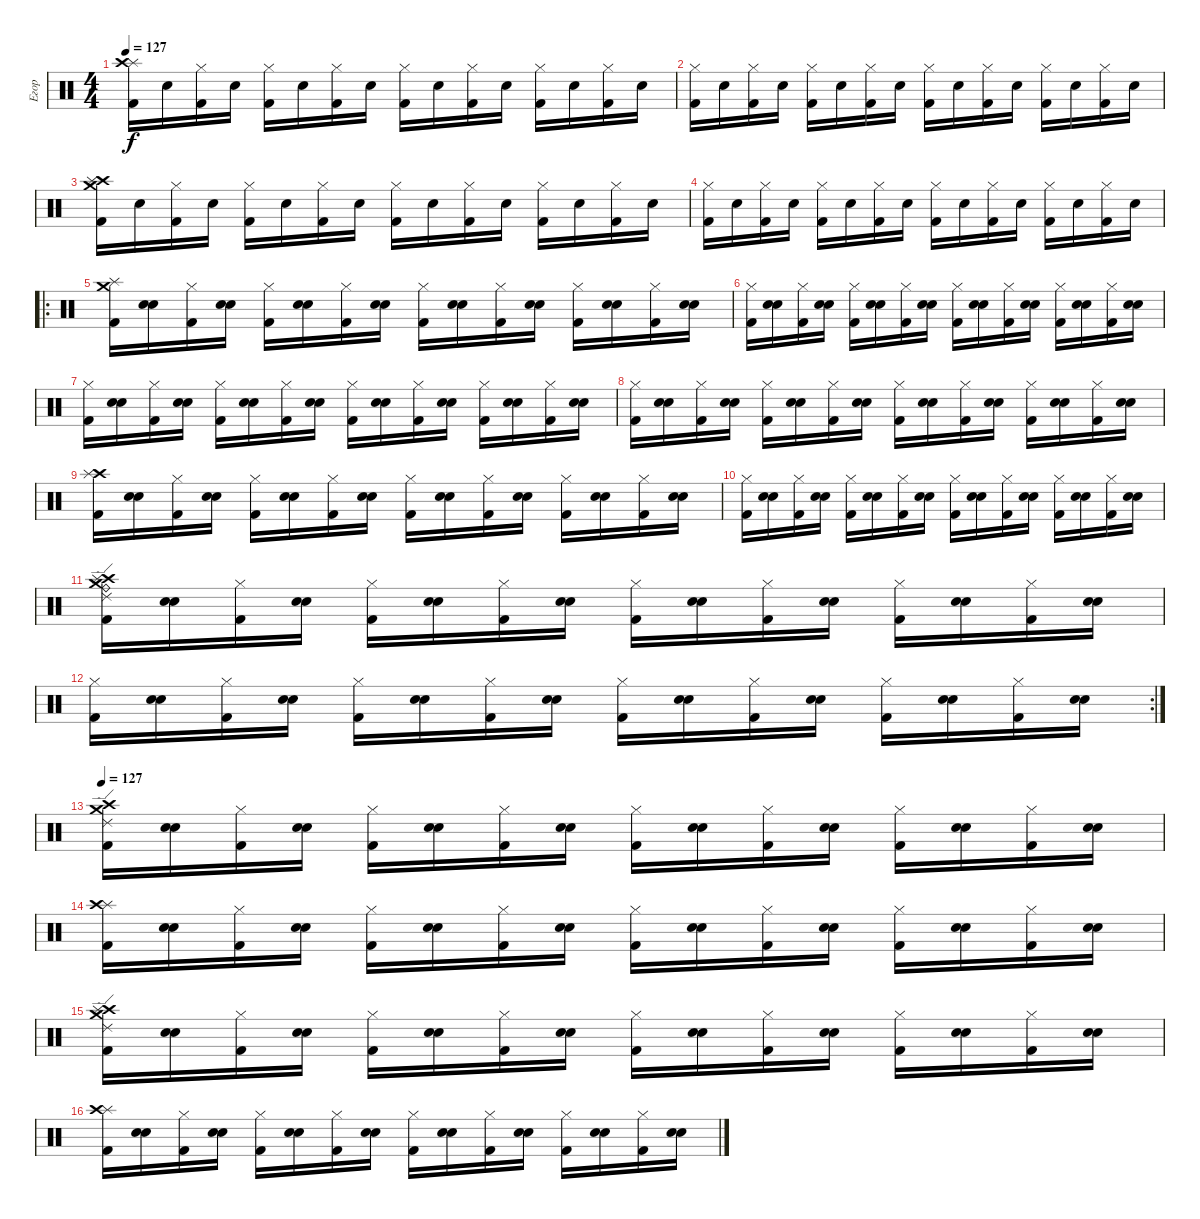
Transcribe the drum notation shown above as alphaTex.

\track ("Егор" "Егор") {instrument percussion}
\staff {score}
\articulation defaults
\ts (4 4)
\tempo 127
\clef neutral
\ks c
("Splash (hit)" "Crash high (hit)" "Kick (hit) 2").16{dy f} "Electric Snare (hit)".16 ("Hi-Hat (closed)" "Kick (hit) 2").16 "Electric Snare (hit)".16 ("Hi-Hat (closed)" "Kick (hit) 2").16 "Electric Snare (hit)".16 ("Hi-Hat (closed)" "Kick (hit) 2").16 "Electric Snare (hit)".16 ("Hi-Hat (closed)" "Kick (hit) 2").16 "Electric Snare (hit)".16 ("Hi-Hat (closed)" "Kick (hit) 2").16 "Electric Snare (hit)".16 ("Hi-Hat (closed)" "Kick (hit) 2").16 "Electric Snare (hit)".16 ("Hi-Hat (closed)" "Kick (hit) 2").16 "Electric Snare (hit)".16 |
("Hi-Hat (closed)" "Kick (hit) 2").16 "Electric Snare (hit)".16 ("Hi-Hat (closed)" "Kick (hit) 2").16 "Electric Snare (hit)".16 ("Hi-Hat (closed)" "Kick (hit) 2").16 "Electric Snare (hit)".16 ("Hi-Hat (closed)" "Kick (hit) 2").16 "Electric Snare (hit)".16 ("Hi-Hat (closed)" "Kick (hit) 2").16 "Electric Snare (hit)".16 ("Hi-Hat (closed)" "Kick (hit) 2").16 "Electric Snare (hit)".16 ("Hi-Hat (closed)" "Kick (hit) 2").16 "Electric Snare (hit)".16 ("Hi-Hat (closed)" "Kick (hit) 2").16 "Electric Snare (hit)".16 |
("Crash high (hit)" "Crash medium (hit)" "Splash (hit)" "Kick (hit) 2").16 "Electric Snare (hit)".16 ("Hi-Hat (closed)" "Kick (hit) 2").16 "Electric Snare (hit)".16 ("Hi-Hat (closed)" "Kick (hit) 2").16 "Electric Snare (hit)".16 ("Hi-Hat (closed)" "Kick (hit) 2").16 "Electric Snare (hit)".16 ("Hi-Hat (closed)" "Kick (hit) 2").16 "Electric Snare (hit)".16 ("Hi-Hat (closed)" "Kick (hit) 2").16 "Electric Snare (hit)".16 ("Hi-Hat (closed)" "Kick (hit) 2").16 "Electric Snare (hit)".16 ("Hi-Hat (closed)" "Kick (hit) 2").16 "Electric Snare (hit)".16 |
("Hi-Hat (closed)" "Kick (hit) 2").16 "Electric Snare (hit)".16 ("Hi-Hat (closed)" "Kick (hit) 2").16 "Electric Snare (hit)".16 ("Hi-Hat (closed)" "Kick (hit) 2").16 "Electric Snare (hit)".16 ("Hi-Hat (closed)" "Kick (hit) 2").16 "Electric Snare (hit)".16 ("Hi-Hat (closed)" "Kick (hit) 2").16 "Electric Snare (hit)".16 ("Hi-Hat (closed)" "Kick (hit) 2").16 "Electric Snare (hit)".16 ("Hi-Hat (closed)" "Kick (hit) 2").16 "Electric Snare (hit)".16 ("Hi-Hat (closed)" "Kick (hit) 2").16 "Electric Snare (hit)".16 |
\ro
("Crash medium (hit)" "Splash (hit)" "Kick (hit) 2").16 ("Snare (hit) 2" "Electric Snare (hit)").16 ("Hi-Hat (closed)" "Kick (hit) 2").16 ("Snare (hit) 2" "Electric Snare (hit)").16 ("Hi-Hat (closed)" "Kick (hit) 2").16 ("Snare (hit) 2" "Electric Snare (hit)").16 ("Hi-Hat (closed)" "Kick (hit) 2").16 ("Snare (hit) 2" "Electric Snare (hit)").16 ("Hi-Hat (closed)" "Kick (hit) 2").16 ("Snare (hit) 2" "Electric Snare (hit)").16 ("Hi-Hat (closed)" "Kick (hit) 2").16 ("Snare (hit) 2" "Electric Snare (hit)").16 ("Hi-Hat (closed)" "Kick (hit) 2").16 ("Snare (hit) 2" "Electric Snare (hit)").16 ("Hi-Hat (closed)" "Kick (hit) 2").16 ("Snare (hit) 2" "Electric Snare (hit)").16 |
("Hi-Hat (closed)" "Kick (hit) 2").16 ("Snare (hit) 2" "Electric Snare (hit)").16 ("Hi-Hat (closed)" "Kick (hit) 2").16 ("Snare (hit) 2" "Electric Snare (hit)").16 ("Hi-Hat (closed)" "Kick (hit) 2").16 ("Snare (hit) 2" "Electric Snare (hit)").16 ("Hi-Hat (closed)" "Kick (hit) 2").16 ("Snare (hit) 2" "Electric Snare (hit)").16 ("Hi-Hat (closed)" "Kick (hit) 2").16 ("Snare (hit) 2" "Electric Snare (hit)").16 ("Hi-Hat (closed)" "Kick (hit) 2").16 ("Snare (hit) 2" "Electric Snare (hit)").16 ("Hi-Hat (closed)" "Kick (hit) 2").16 ("Snare (hit) 2" "Electric Snare (hit)").16 ("Hi-Hat (closed)" "Kick (hit) 2").16 ("Snare (hit) 2" "Electric Snare (hit)").16 |
("Hi-Hat (closed)" "Kick (hit) 2").16 ("Snare (hit) 2" "Electric Snare (hit)").16 ("Hi-Hat (closed)" "Kick (hit) 2").16 ("Snare (hit) 2" "Electric Snare (hit)").16 ("Hi-Hat (closed)" "Kick (hit) 2").16 ("Snare (hit) 2" "Electric Snare (hit)").16 ("Hi-Hat (closed)" "Kick (hit) 2").16 ("Snare (hit) 2" "Electric Snare (hit)").16 ("Hi-Hat (closed)" "Kick (hit) 2").16 ("Snare (hit) 2" "Electric Snare (hit)").16 ("Hi-Hat (closed)" "Kick (hit) 2").16 ("Snare (hit) 2" "Electric Snare (hit)").16 ("Hi-Hat (closed)" "Kick (hit) 2").16 ("Snare (hit) 2" "Electric Snare (hit)").16 ("Hi-Hat (closed)" "Kick (hit) 2").16 ("Snare (hit) 2" "Electric Snare (hit)").16 |
("Hi-Hat (closed)" "Kick (hit) 2").16 ("Snare (hit) 2" "Electric Snare (hit)").16 ("Hi-Hat (closed)" "Kick (hit) 2").16 ("Snare (hit) 2" "Electric Snare (hit)").16 ("Hi-Hat (closed)" "Kick (hit) 2").16 ("Snare (hit) 2" "Electric Snare (hit)").16 ("Hi-Hat (closed)" "Kick (hit) 2").16 ("Snare (hit) 2" "Electric Snare (hit)").16 ("Hi-Hat (closed)" "Kick (hit) 2").16 ("Snare (hit) 2" "Electric Snare (hit)").16 ("Hi-Hat (closed)" "Kick (hit) 2").16 ("Snare (hit) 2" "Electric Snare (hit)").16 ("Hi-Hat (closed)" "Kick (hit) 2").16 ("Snare (hit) 2" "Electric Snare (hit)").16 ("Hi-Hat (closed)" "Kick (hit) 2").16 ("Snare (hit) 2" "Electric Snare (hit)").16 |
("Crash high (hit)" "Splash (hit)" "Kick (hit) 2").16 ("Snare (hit) 2" "Electric Snare (hit)").16 ("Hi-Hat (closed)" "Kick (hit) 2").16 ("Snare (hit) 2" "Electric Snare (hit)").16 ("Hi-Hat (closed)" "Kick (hit) 2").16 ("Snare (hit) 2" "Electric Snare (hit)").16 ("Hi-Hat (closed)" "Kick (hit) 2").16 ("Snare (hit) 2" "Electric Snare (hit)").16 ("Hi-Hat (closed)" "Kick (hit) 2").16 ("Snare (hit) 2" "Electric Snare (hit)").16 ("Hi-Hat (closed)" "Kick (hit) 2").16 ("Snare (hit) 2" "Electric Snare (hit)").16 ("Hi-Hat (closed)" "Kick (hit) 2").16 ("Snare (hit) 2" "Electric Snare (hit)").16 ("Hi-Hat (closed)" "Kick (hit) 2").16 ("Snare (hit) 2" "Electric Snare (hit)").16 |
("Hi-Hat (closed)" "Kick (hit) 2").16 ("Snare (hit) 2" "Electric Snare (hit)").16 ("Hi-Hat (closed)" "Kick (hit) 2").16 ("Snare (hit) 2" "Electric Snare (hit)").16 ("Hi-Hat (closed)" "Kick (hit) 2").16 ("Snare (hit) 2" "Electric Snare (hit)").16 ("Hi-Hat (closed)" "Kick (hit) 2").16 ("Snare (hit) 2" "Electric Snare (hit)").16 ("Hi-Hat (closed)" "Kick (hit) 2").16 ("Snare (hit) 2" "Electric Snare (hit)").16 ("Hi-Hat (closed)" "Kick (hit) 2").16 ("Snare (hit) 2" "Electric Snare (hit)").16 ("Hi-Hat (closed)" "Kick (hit) 2").16 ("Snare (hit) 2" "Electric Snare (hit)").16 ("Hi-Hat (closed)" "Kick (hit) 2").16 ("Snare (hit) 2" "Electric Snare (hit)").16 |
("Ride (bell)" "Crash medium (hit)" "Crash high (hit)" "Splash (hit)" "Ride (edge) 2" "Kick (hit) 2").16 ("Snare (hit) 2" "Electric Snare (hit)").16 ("Hi-Hat (closed)" "Kick (hit) 2").16 ("Snare (hit) 2" "Electric Snare (hit)").16 ("Hi-Hat (closed)" "Kick (hit) 2").16 ("Snare (hit) 2" "Electric Snare (hit)").16 ("Hi-Hat (closed)" "Kick (hit) 2").16 ("Snare (hit) 2" "Electric Snare (hit)").16 ("Hi-Hat (closed)" "Kick (hit) 2").16 ("Snare (hit) 2" "Electric Snare (hit)").16 ("Hi-Hat (closed)" "Kick (hit) 2").16 ("Snare (hit) 2" "Electric Snare (hit)").16 ("Hi-Hat (closed)" "Kick (hit) 2").16 ("Snare (hit) 2" "Electric Snare (hit)").16 ("Hi-Hat (closed)" "Kick (hit) 2").16 ("Snare (hit) 2" "Electric Snare (hit)").16 |
\rc 2
("Hi-Hat (closed)" "Kick (hit) 2").16 ("Snare (hit) 2" "Electric Snare (hit)").16 ("Hi-Hat (closed)" "Kick (hit) 2").16 ("Snare (hit) 2" "Electric Snare (hit)").16 ("Hi-Hat (closed)" "Kick (hit) 2").16 ("Snare (hit) 2" "Electric Snare (hit)").16 ("Hi-Hat (closed)" "Kick (hit) 2").16 ("Snare (hit) 2" "Electric Snare (hit)").16 ("Hi-Hat (closed)" "Kick (hit) 2").16 ("Snare (hit) 2" "Electric Snare (hit)").16 ("Hi-Hat (closed)" "Kick (hit) 2").16 ("Snare (hit) 2" "Electric Snare (hit)").16 ("Hi-Hat (closed)" "Kick (hit) 2").16 ("Snare (hit) 2" "Electric Snare (hit)").16 ("Hi-Hat (closed)" "Kick (hit) 2").16 ("Snare (hit) 2" "Electric Snare (hit)").16 |
\tempo 127
("Ride (edge) 2" "Crash medium (hit)" "Crash high (hit)" "Kick (hit) 2").16 ("Snare (hit) 2" "Electric Snare (hit)").16 ("Hi-Hat (closed)" "Kick (hit) 2").16 ("Snare (hit) 2" "Electric Snare (hit)").16 ("Hi-Hat (closed)" "Kick (hit) 2").16 ("Snare (hit) 2" "Electric Snare (hit)").16 ("Hi-Hat (closed)" "Kick (hit) 2").16 ("Snare (hit) 2" "Electric Snare (hit)").16 ("Hi-Hat (closed)" "Kick (hit) 2").16 ("Snare (hit) 2" "Electric Snare (hit)").16 ("Hi-Hat (closed)" "Kick (hit) 2").16 ("Snare (hit) 2" "Electric Snare (hit)").16 ("Hi-Hat (closed)" "Kick (hit) 2").16 ("Snare (hit) 2" "Electric Snare (hit)").16 ("Hi-Hat (closed)" "Kick (hit) 2").16 ("Snare (hit) 2" "Electric Snare (hit)").16 |
("Splash (hit)" "Crash high (hit)" "Kick (hit) 2").16 ("Snare (hit) 2" "Electric Snare (hit)").16 ("Hi-Hat (closed)" "Kick (hit) 2").16 ("Snare (hit) 2" "Electric Snare (hit)").16 ("Hi-Hat (closed)" "Kick (hit) 2").16 ("Snare (hit) 2" "Electric Snare (hit)").16 ("Hi-Hat (closed)" "Kick (hit) 2").16 ("Snare (hit) 2" "Electric Snare (hit)").16 ("Hi-Hat (closed)" "Kick (hit) 2").16 ("Snare (hit) 2" "Electric Snare (hit)").16 ("Hi-Hat (closed)" "Kick (hit) 2").16 ("Snare (hit) 2" "Electric Snare (hit)").16 ("Hi-Hat (closed)" "Kick (hit) 2").16 ("Snare (hit) 2" "Electric Snare (hit)").16 ("Hi-Hat (closed)" "Kick (hit) 2").16 ("Snare (hit) 2" "Electric Snare (hit)").16 |
("Crash medium (hit)" "Ride (edge) 2" "Crash high (hit)" "Splash (hit)" "Kick (hit) 2").16 ("Snare (hit) 2" "Electric Snare (hit)").16 ("Hi-Hat (closed)" "Kick (hit) 2").16 ("Snare (hit) 2" "Electric Snare (hit)").16 ("Hi-Hat (closed)" "Kick (hit) 2").16 ("Snare (hit) 2" "Electric Snare (hit)").16 ("Hi-Hat (closed)" "Kick (hit) 2").16 ("Snare (hit) 2" "Electric Snare (hit)").16 ("Hi-Hat (closed)" "Kick (hit) 2").16 ("Snare (hit) 2" "Electric Snare (hit)").16 ("Hi-Hat (closed)" "Kick (hit) 2").16 ("Snare (hit) 2" "Electric Snare (hit)").16 ("Hi-Hat (closed)" "Kick (hit) 2").16 ("Snare (hit) 2" "Electric Snare (hit)").16 ("Hi-Hat (closed)" "Kick (hit) 2").16 ("Snare (hit) 2" "Electric Snare (hit)").16 |
("Splash (hit)" "Crash high (hit)" "Kick (hit) 2").16 ("Snare (hit) 2" "Electric Snare (hit)").16 ("Hi-Hat (closed)" "Kick (hit) 2").16 ("Snare (hit) 2" "Electric Snare (hit)").16 ("Hi-Hat (closed)" "Kick (hit) 2").16 ("Snare (hit) 2" "Electric Snare (hit)").16 ("Hi-Hat (closed)" "Kick (hit) 2").16 ("Snare (hit) 2" "Electric Snare (hit)").16 ("Hi-Hat (closed)" "Kick (hit) 2").16 ("Snare (hit) 2" "Electric Snare (hit)").16 ("Hi-Hat (closed)" "Kick (hit) 2").16 ("Snare (hit) 2" "Electric Snare (hit)").16 ("Hi-Hat (closed)" "Kick (hit) 2").16 ("Snare (hit) 2" "Electric Snare (hit)").16 ("Hi-Hat (closed)" "Kick (hit) 2").16 ("Snare (hit) 2" "Electric Snare (hit)").16
